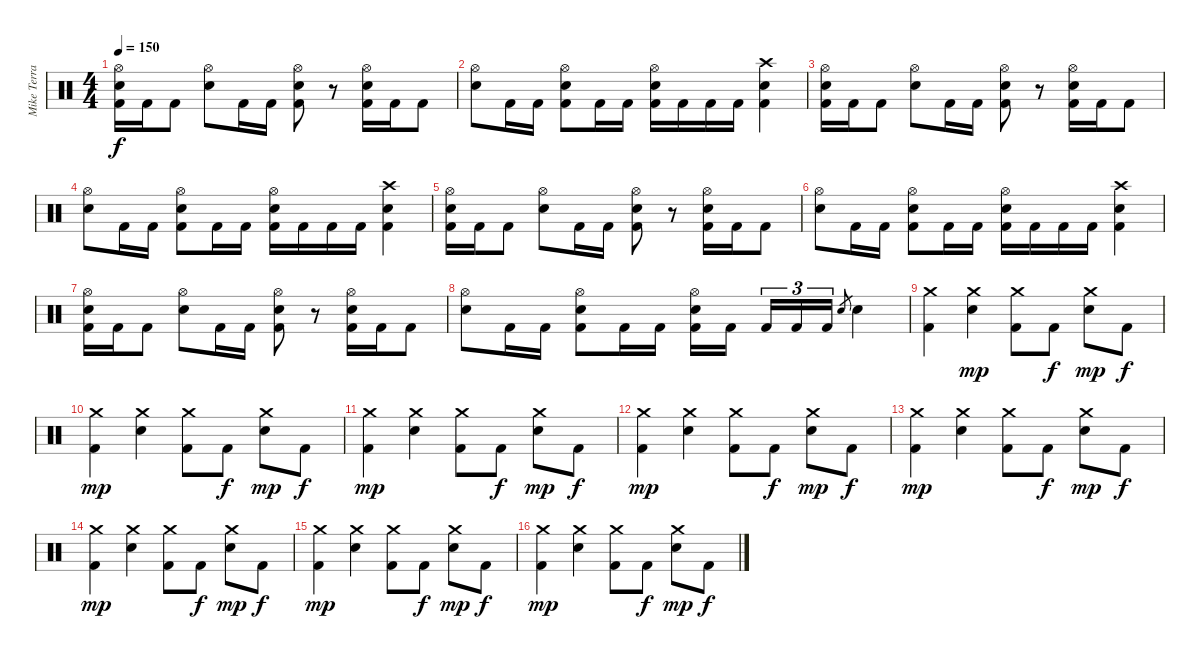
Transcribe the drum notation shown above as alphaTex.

\track ("Mike Terrana" "Mike Terra") {instrument percussion}
\staff {score}
\articulation defaults
\ts (4 4)
\tempo 150
\clef neutral
\ks c
("Hi-Hat (open)" "Electric Snare (hit)" "Kick (hit) 2").16{dy f} "Kick (hit) 2".16 "Kick (hit) 2".8 ("Hi-Hat (open)" "Electric Snare (hit)").8 "Kick (hit) 2".16 "Kick (hit) 2".16 ("Hi-Hat (open)" "Electric Snare (hit)" "Kick (hit) 2").8 r.8 ("Hi-Hat (open)" "Electric Snare (hit)" "Kick (hit) 2").16 "Kick (hit) 2".16 "Kick (hit) 2".8 |
("Hi-Hat (open)" "Electric Snare (hit)").8 "Kick (hit) 2".16 "Kick (hit) 2".16 ("Hi-Hat (open)" "Electric Snare (hit)" "Kick (hit) 2").8 "Kick (hit) 2".16 "Kick (hit) 2".16 ("Hi-Hat (open)" "Electric Snare (hit)" "Kick (hit) 2").16 "Kick (hit) 2".16 "Kick (hit) 2".16 "Kick (hit) 2".16 ("Crash high (hit)" "Electric Snare (hit)" "Kick (hit) 2").4 |
("Hi-Hat (open)" "Electric Snare (hit)" "Kick (hit) 2").16 "Kick (hit) 2".16 "Kick (hit) 2".8 ("Hi-Hat (open)" "Electric Snare (hit)").8 "Kick (hit) 2".16 "Kick (hit) 2".16 ("Hi-Hat (open)" "Electric Snare (hit)" "Kick (hit) 2").8 r.8 ("Hi-Hat (open)" "Electric Snare (hit)" "Kick (hit) 2").16 "Kick (hit) 2".16 "Kick (hit) 2".8 |
("Hi-Hat (open)" "Electric Snare (hit)").8 "Kick (hit) 2".16 "Kick (hit) 2".16 ("Hi-Hat (open)" "Electric Snare (hit)" "Kick (hit) 2").8 "Kick (hit) 2".16 "Kick (hit) 2".16 ("Hi-Hat (open)" "Electric Snare (hit)" "Kick (hit) 2").16 "Kick (hit) 2".16 "Kick (hit) 2".16 "Kick (hit) 2".16 ("Crash high (hit)" "Electric Snare (hit)" "Kick (hit) 2").4 |
("Hi-Hat (open)" "Electric Snare (hit)" "Kick (hit) 2").16 "Kick (hit) 2".16 "Kick (hit) 2".8 ("Hi-Hat (open)" "Electric Snare (hit)").8 "Kick (hit) 2".16 "Kick (hit) 2".16 ("Hi-Hat (open)" "Electric Snare (hit)" "Kick (hit) 2").8 r.8 ("Hi-Hat (open)" "Electric Snare (hit)" "Kick (hit) 2").16 "Kick (hit) 2".16 "Kick (hit) 2".8 |
("Hi-Hat (open)" "Electric Snare (hit)").8 "Kick (hit) 2".16 "Kick (hit) 2".16 ("Hi-Hat (open)" "Electric Snare (hit)" "Kick (hit) 2").8 "Kick (hit) 2".16 "Kick (hit) 2".16 ("Hi-Hat (open)" "Electric Snare (hit)" "Kick (hit) 2").16 "Kick (hit) 2".16 "Kick (hit) 2".16 "Kick (hit) 2".16 ("Crash high (hit)" "Electric Snare (hit)" "Kick (hit) 2").4 |
("Hi-Hat (open)" "Electric Snare (hit)" "Kick (hit) 2").16 "Kick (hit) 2".16 "Kick (hit) 2".8 ("Hi-Hat (open)" "Electric Snare (hit)").8 "Kick (hit) 2".16 "Kick (hit) 2".16 ("Hi-Hat (open)" "Electric Snare (hit)" "Kick (hit) 2").8 r.8 ("Hi-Hat (open)" "Electric Snare (hit)" "Kick (hit) 2").16 "Kick (hit) 2".16 "Kick (hit) 2".8 |
("Hi-Hat (open)" "Electric Snare (hit)").8 "Kick (hit) 2".16 "Kick (hit) 2".16 ("Hi-Hat (open)" "Electric Snare (hit)" "Kick (hit) 2").8 "Kick (hit) 2".16 "Kick (hit) 2".16 ("Hi-Hat (open)" "Electric Snare (hit)" "Kick (hit) 2").16 "Kick (hit) 2".16 "Kick (hit) 2".16{tu (3 2)} "Kick (hit) 2".16{tu (3 2)} "Kick (hit) 2".16{tu (3 2)} "Electric Snare (hit)".8{gr} "Electric Snare (hit)".4 |
("Crash medium (hit)" "Kick (hit) 2").4 ("Crash medium (hit)" "Electric Snare (hit)").4{dy mp} ("Crash medium (hit)" "Kick (hit) 2").8 "Kick (hit) 2".8{dy f} ("Crash medium (hit)" "Electric Snare (hit)").8{dy mp} "Kick (hit) 2".8{dy f} |
("Crash medium (hit)" "Kick (hit) 2").4{dy mp} ("Crash medium (hit)" "Electric Snare (hit)").4 ("Crash medium (hit)" "Kick (hit) 2").8 "Kick (hit) 2".8{dy f} ("Crash medium (hit)" "Electric Snare (hit)").8{dy mp} "Kick (hit) 2".8{dy f} |
("Crash medium (hit)" "Kick (hit) 2").4{dy mp} ("Crash medium (hit)" "Electric Snare (hit)").4 ("Crash medium (hit)" "Kick (hit) 2").8 "Kick (hit) 2".8{dy f} ("Crash medium (hit)" "Electric Snare (hit)").8{dy mp} "Kick (hit) 2".8{dy f} |
("Crash medium (hit)" "Kick (hit) 2").4{dy mp} ("Crash medium (hit)" "Electric Snare (hit)").4 ("Crash medium (hit)" "Kick (hit) 2").8 "Kick (hit) 2".8{dy f} ("Crash medium (hit)" "Electric Snare (hit)").8{dy mp} "Kick (hit) 2".8{dy f} |
("Crash medium (hit)" "Kick (hit) 2").4{dy mp} ("Crash medium (hit)" "Electric Snare (hit)").4 ("Crash medium (hit)" "Kick (hit) 2").8 "Kick (hit) 2".8{dy f} ("Crash medium (hit)" "Electric Snare (hit)").8{dy mp} "Kick (hit) 2".8{dy f} |
("Crash medium (hit)" "Kick (hit) 2").4{dy mp} ("Crash medium (hit)" "Electric Snare (hit)").4 ("Crash medium (hit)" "Kick (hit) 2").8 "Kick (hit) 2".8{dy f} ("Crash medium (hit)" "Electric Snare (hit)").8{dy mp} "Kick (hit) 2".8{dy f} |
("Crash medium (hit)" "Kick (hit) 2").4{dy mp} ("Crash medium (hit)" "Electric Snare (hit)").4 ("Crash medium (hit)" "Kick (hit) 2").8 "Kick (hit) 2".8{dy f} ("Crash medium (hit)" "Electric Snare (hit)").8{dy mp} "Kick (hit) 2".8{dy f} |
("Crash medium (hit)" "Kick (hit) 2").4{dy mp} ("Crash medium (hit)" "Electric Snare (hit)").4 ("Crash medium (hit)" "Kick (hit) 2").8 "Kick (hit) 2".8{dy f} ("Crash medium (hit)" "Electric Snare (hit)").8{dy mp} "Kick (hit) 2".8{dy f}
